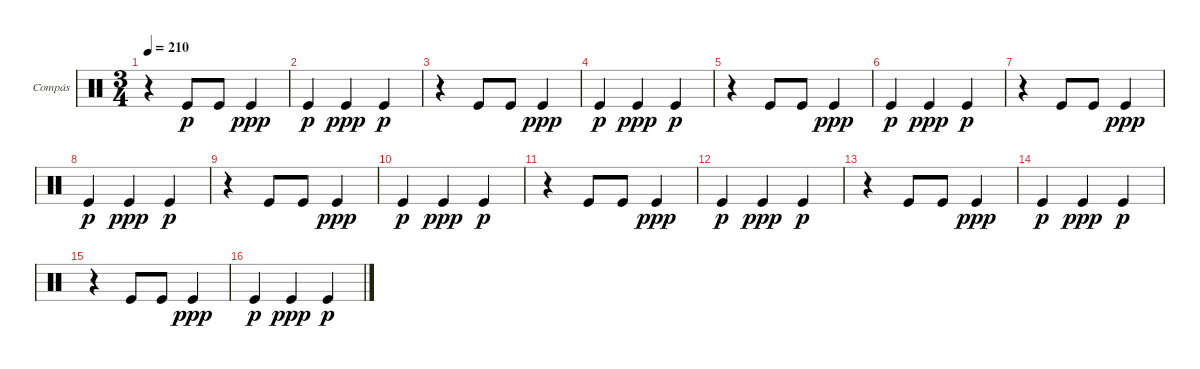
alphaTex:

\defaultSystemsLayout 4
\bracketExtendMode groupsimilarinstruments
\firstSystemTrackNameOrientation horizontal
\otherSystemsTrackNameOrientation horizontal
\track ("Compás" "Compás") {instrument percussion}
\staff {score}
\articulation defaults
\ts (3 4)
\tempo 210
\clef neutral
\scale
0.25
\ks c
r.4{dy p} "Kick (hit)".8 "Kick (hit)".8 "Kick (hit)".4{dy ppp} |
\scale
0.25 "Kick (hit)".4{dy p} "Kick (hit)".4{dy ppp} "Kick (hit)".4{dy p} |
\scale
0.25 r.4 "Kick (hit)".8 "Kick (hit)".8 "Kick (hit)".4{dy ppp} |
\scale
0.25 "Kick (hit)".4{dy p} "Kick (hit)".4{dy ppp} "Kick (hit)".4{dy p} |
\scale
0.25 r.4 "Kick (hit)".8 "Kick (hit)".8 "Kick (hit)".4{dy ppp} |
\scale
0.25 "Kick (hit)".4{dy p} "Kick (hit)".4{dy ppp} "Kick (hit)".4{dy p} |
\scale
0.25 r.4 "Kick (hit)".8 "Kick (hit)".8 "Kick (hit)".4{dy ppp} |
\scale
0.25 "Kick (hit)".4{dy p} "Kick (hit)".4{dy ppp} "Kick (hit)".4{dy p} |
\scale
0.25 r.4 "Kick (hit)".8 "Kick (hit)".8 "Kick (hit)".4{dy ppp} |
\scale
0.25 "Kick (hit)".4{dy p} "Kick (hit)".4{dy ppp} "Kick (hit)".4{dy p} |
\scale
0.25 r.4 "Kick (hit)".8 "Kick (hit)".8 "Kick (hit)".4{dy ppp} |
\scale
0.25 "Kick (hit)".4{dy p} "Kick (hit)".4{dy ppp} "Kick (hit)".4{dy p} |
\scale
0.25 r.4 "Kick (hit)".8 "Kick (hit)".8 "Kick (hit)".4{dy ppp} |
\scale
0.25 "Kick (hit)".4{dy p} "Kick (hit)".4{dy ppp} "Kick (hit)".4{dy p} |
\scale
0.25 r.4 "Kick (hit)".8 "Kick (hit)".8 "Kick (hit)".4{dy ppp} |
\scale
0.25 "Kick (hit)".4{dy p} "Kick (hit)".4{dy ppp} "Kick (hit)".4{dy p}
